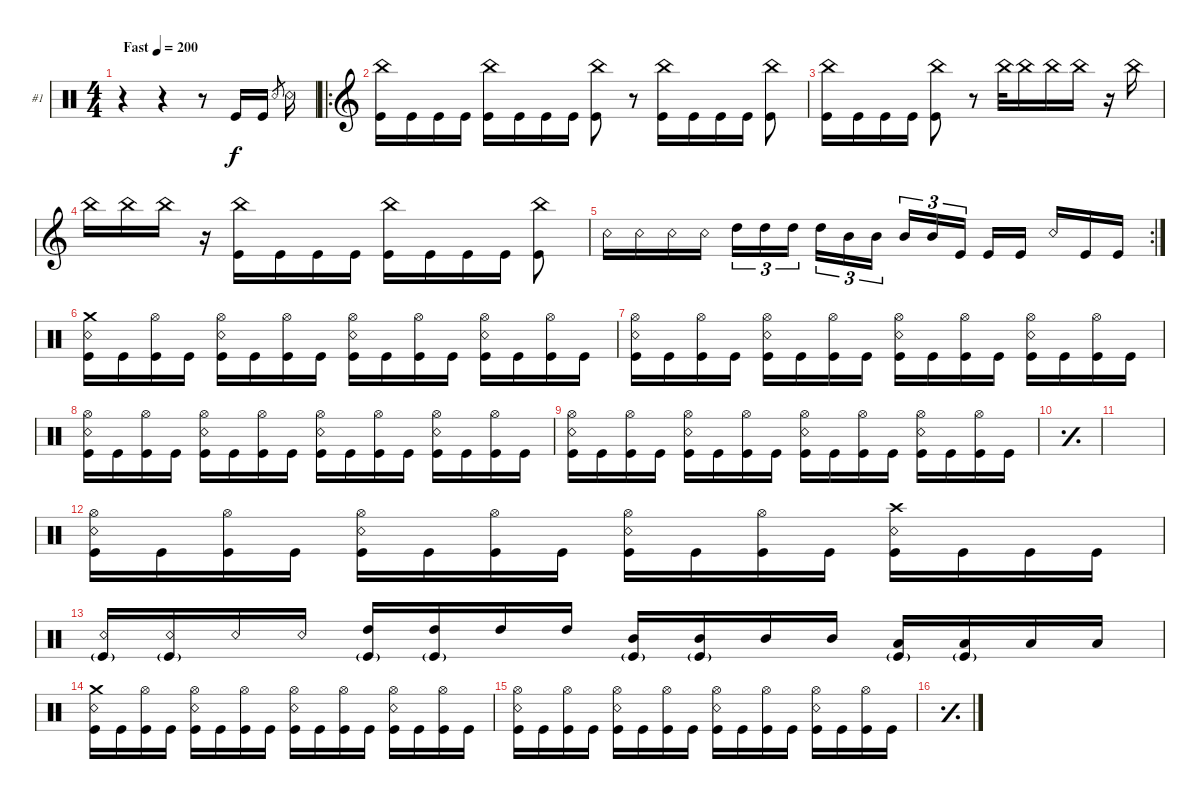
\bracketExtendMode groupsimilarinstruments
\firstSystemTrackNameOrientation horizontal
\otherSystemsTrackNameOrientation horizontal
\track ("Joey Jordison" "#1") {instrument percussion}
\staff {score}
\articulation defaults
\ts (4 4)
\beaming (8 2 2 2 2)
\tempo (200 "Fast")
\clef neutral
\ks c
r.4{dy f} r.4 r.8 "Kick (hit)".16 "Kick (hit)".16 "Snare (rim shot)".8{gr} "Snare (rim shot)".16 |
\ro
\clef g2
("Kick (hit)" "China (hit)").16 "Kick (hit)".16 "Kick (hit)".16 "Kick (hit)".16 ("Kick (hit)" "China (hit)").16 "Kick (hit)".16 "Kick (hit)".16 "Kick (hit)".16 ("Kick (hit)" "China (hit)").8 r.8 ("Kick (hit)" "China (hit)").16 "Kick (hit)".16 "Kick (hit)".16 "Kick (hit)".16 ("Kick (hit)" "China (hit)").8 |
("Kick (hit)" "China (hit)").16 "Kick (hit)".16 "Kick (hit)".16 "Kick (hit)".16 ("Kick (hit)" "China (hit)").8 r.8 "China (hit)".32 "China (hit)".16 "China (hit)".16 "China (hit)".16 r.16 "China (hit)".16 |
"China (hit)".16 "China (hit)".16 "China (hit)".16 r.16 ("Kick (hit)" "China (hit)").16 "Kick (hit)".16 "Kick (hit)".16 "Kick (hit)".16 ("Kick (hit)" "China (hit)").16 "Kick (hit)".16 "Kick (hit)".16 "Kick (hit)".16 ("Kick (hit)" "China (hit)").8 |
\rc 2 "Snare (rim shot)".16 "Snare (rim shot)".16 "Snare (rim shot)".16 "Snare (rim shot)".16 "High Tom (hit)".16{tu (3 2)} "High Tom (hit)".16{tu (3 2)} "High Tom (hit)".16{tu (3 2)} "High Tom (hit)".16{tu (3 2)} "Mid Tom (hit)".16{tu (3 2)} "Mid Tom (hit)".16{tu (3 2)} "Mid Tom (hit)".16{tu (3 2)} "Mid Tom (hit)".16{tu (3 2)} "Kick (hit)".16{tu (3 2)} "Kick (hit)".16 "Kick (hit)".16 "Snare (rim shot)".16 "Kick (hit)".16 "Kick (hit)".16
|
\clef neutral
("Kick (hit)" "Snare (rim shot)" "Crash medium (hit)").16 "Kick (hit)".16 ("Kick (hit)" "Hi-Hat (open)").16 "Kick (hit)".16 ("Kick (hit)" "Snare (rim shot)" "Hi-Hat (open)").16 "Kick (hit)".16 ("Kick (hit)" "Hi-Hat (open)").16 "Kick (hit)".16 ("Kick (hit)" "Snare (rim shot)" "Hi-Hat (open)").16 "Kick (hit)".16 ("Kick (hit)" "Hi-Hat (open)").16 "Kick (hit)".16 ("Kick (hit)" "Snare (rim shot)" "Hi-Hat (open)").16 "Kick (hit)".16 ("Kick (hit)" "Hi-Hat (open)").16 "Kick (hit)".16 |
("Kick (hit)" "Snare (rim shot)" "Hi-Hat (open)").16 "Kick (hit)".16 ("Kick (hit)" "Hi-Hat (open)").16 "Kick (hit)".16 ("Kick (hit)" "Snare (rim shot)" "Hi-Hat (open)").16 "Kick (hit)".16 ("Kick (hit)" "Hi-Hat (open)").16 "Kick (hit)".16 ("Kick (hit)" "Snare (rim shot)" "Hi-Hat (open)").16 "Kick (hit)".16 ("Kick (hit)" "Hi-Hat (open)").16 "Kick (hit)".16 ("Kick (hit)" "Snare (rim shot)" "Hi-Hat (open)").16 "Kick (hit)".16 ("Kick (hit)" "Hi-Hat (open)").16 "Kick (hit)".16 |
("Kick (hit)" "Snare (rim shot)" "Hi-Hat (open)").16 "Kick (hit)".16 ("Kick (hit)" "Hi-Hat (open)").16 "Kick (hit)".16 ("Kick (hit)" "Snare (rim shot)" "Hi-Hat (open)").16 "Kick (hit)".16 ("Kick (hit)" "Hi-Hat (open)").16 "Kick (hit)".16 ("Kick (hit)" "Snare (rim shot)" "Hi-Hat (open)").16 "Kick (hit)".16 ("Kick (hit)" "Hi-Hat (open)").16 "Kick (hit)".16 ("Kick (hit)" "Snare (rim shot)" "Hi-Hat (open)").16 "Kick (hit)".16 ("Kick (hit)" "Hi-Hat (open)").16 "Kick (hit)".16 |
("Kick (hit)" "Snare (rim shot)" "Hi-Hat (open)").16 "Kick (hit)".16 ("Kick (hit)" "Hi-Hat (open)").16 "Kick (hit)".16 ("Kick (hit)" "Snare (rim shot)" "Hi-Hat (open)").16 "Kick (hit)".16 ("Kick (hit)" "Hi-Hat (open)").16 "Kick (hit)".16 ("Kick (hit)" "Snare (rim shot)" "Hi-Hat (open)").16 "Kick (hit)".16 ("Kick (hit)" "Hi-Hat (open)").16 "Kick (hit)".16 ("Kick (hit)" "Snare (rim shot)" "Hi-Hat (open)").16 "Kick (hit)".16 ("Kick (hit)" "Hi-Hat (open)").16 "Kick (hit)".16 |
\simile simple
|
|
\simile none
("Kick (hit)" "Snare (rim shot)" "Hi-Hat (open)").16 "Kick (hit)".16 ("Kick (hit)" "Hi-Hat (open)").16 "Kick (hit)".16 ("Kick (hit)" "Snare (rim shot)" "Hi-Hat (open)").16 "Kick (hit)".16 ("Kick (hit)" "Hi-Hat (open)").16 "Kick (hit)".16 ("Kick (hit)" "Snare (rim shot)" "Hi-Hat (open)").16 "Kick (hit)".16 ("Kick (hit)" "Hi-Hat (open)").16 "Kick (hit)".16 ("Kick (hit)" "Snare (rim shot)" "Crash high (hit)").16 "Kick (hit)".16 "Kick (hit)".16 "Kick (hit)".16 |
("Snare (rim shot)" "Kick (hit)"{g}).16 ("Snare (rim shot)" "Kick (hit)"{g}).16 "Snare (rim shot)".16 "Snare (rim shot)".16 ("High Tom (hit)" "Kick (hit)"{g}).16 ("High Tom (hit)" "Kick (hit)"{g}).16 "High Tom (hit)".16 "High Tom (hit)".16 ("Mid Tom (hit)" "Kick (hit)"{g}).16 ("Mid Tom (hit)" "Kick (hit)"{g}).16 "Mid Tom (hit)".16 "Mid Tom (hit)".16 ("Low Tom (hit)" "Kick (hit)"{g}).16 ("Low Tom (hit)" "Kick (hit)"{g}).16 "Low Tom (hit)".16 "Low Tom (hit)".16 |
("Kick (hit)" "Snare (rim shot)" "Crash medium (hit)").16 "Kick (hit)".16 ("Kick (hit)" "Hi-Hat (open)").16 "Kick (hit)".16 ("Kick (hit)" "Snare (rim shot)" "Hi-Hat (open)").16 "Kick (hit)".16 ("Kick (hit)" "Hi-Hat (open)").16 "Kick (hit)".16 ("Kick (hit)" "Snare (rim shot)" "Hi-Hat (open)").16 "Kick (hit)".16 ("Kick (hit)" "Hi-Hat (open)").16 "Kick (hit)".16 ("Kick (hit)" "Snare (rim shot)" "Hi-Hat (open)").16 "Kick (hit)".16 ("Kick (hit)" "Hi-Hat (open)").16 "Kick (hit)".16 |
("Kick (hit)" "Snare (rim shot)" "Hi-Hat (open)").16 "Kick (hit)".16 ("Kick (hit)" "Hi-Hat (open)").16 "Kick (hit)".16 ("Kick (hit)" "Snare (rim shot)" "Hi-Hat (open)").16 "Kick (hit)".16 ("Kick (hit)" "Hi-Hat (open)").16 "Kick (hit)".16 ("Kick (hit)" "Snare (rim shot)" "Hi-Hat (open)").16 "Kick (hit)".16 ("Kick (hit)" "Hi-Hat (open)").16 "Kick (hit)".16 ("Kick (hit)" "Snare (rim shot)" "Hi-Hat (open)").16 "Kick (hit)".16 ("Kick (hit)" "Hi-Hat (open)").16 "Kick (hit)".16 |
\simile simple
